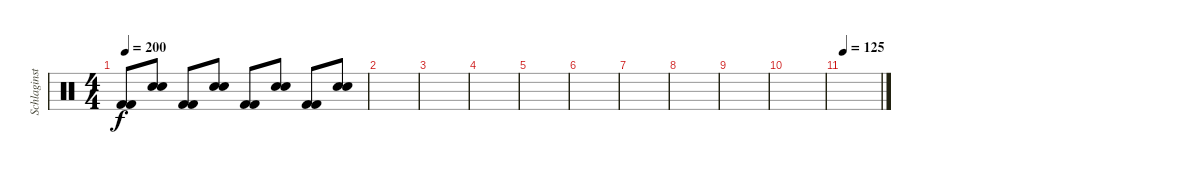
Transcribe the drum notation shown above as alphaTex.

\track ("Schlaginstrumente - Auswahl" "Schlaginst") {instrument percussion}
\staff {score}
\articulation defaults
\ts (4 4)
\tempo 200
\clef neutral
\ks c
("Kick (hit) 2" "Kick (hit) 2").8{dy f} ("Electric Snare (hit)" "Electric Snare (hit)").8 ("Kick (hit) 2" "Kick (hit) 2").8 ("Electric Snare (hit)" "Electric Snare (hit)").8 ("Kick (hit) 2" "Kick (hit) 2").8 ("Electric Snare (hit)" "Electric Snare (hit)").8 ("Kick (hit) 2" "Kick (hit) 2").8 ("Electric Snare (hit)" "Electric Snare (hit)").8 |
|
|
|
|
|
|
|
|
|
\tempo 125
